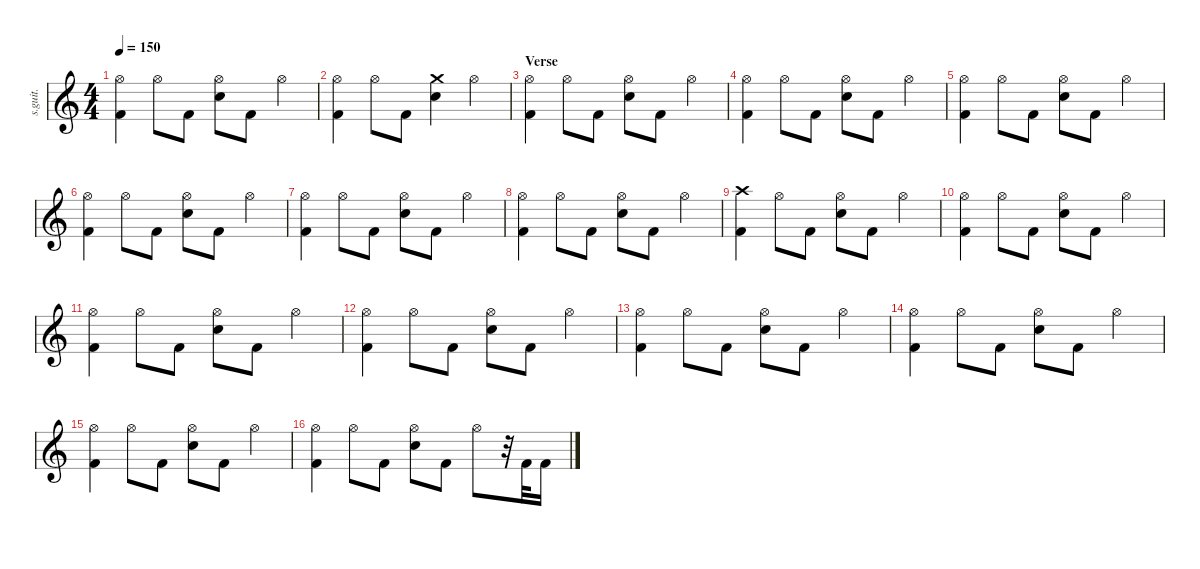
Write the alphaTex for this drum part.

\defaultSystemsLayout 4
\hideDynamics
\bracketExtendMode nobrackets
\track ("Christoph Schneider" "s.guit.") {instrument percussion}
\staff {score}
\articulation defaults
\ts (4 4)
\tempo 150
\clef g2
\ks c
("Kick (hit) 2" "Hi-Hat (open)").4{lyrics (0 "") lyrics (1 "") lyrics (2 "") lyrics (3 "") lyrics (4 "") dy ff} "Hi-Hat (open)".8{lyrics (0 "") lyrics (1 "") lyrics (2 "") lyrics (3 "") lyrics (4 "")} "Kick (hit) 2".8{lyrics (0 "") lyrics (1 "") lyrics (2 "") lyrics (3 "") lyrics (4 "")} ("Snare (hit) 2" "Hi-Hat (open)").8{lyrics (0 "") lyrics (1 "") lyrics (2 "") lyrics (3 "") lyrics (4 "")} "Kick (hit) 2".8{lyrics (0 "") lyrics (1 "") lyrics (2 "") lyrics (3 "") lyrics (4 "")} "Hi-Hat (open)".4{lyrics (0 "") lyrics (1 "") lyrics (2 "") lyrics (3 "") lyrics (4 "")} |
("Kick (hit) 2" "Hi-Hat (open)").4{lyrics (0 "") lyrics (1 "") lyrics (2 "") lyrics (3 "") lyrics (4 "")} "Hi-Hat (open)".8{lyrics (0 "") lyrics (1 "") lyrics (2 "") lyrics (3 "") lyrics (4 "")} "Kick (hit) 2".8{lyrics (0 "") lyrics (1 "") lyrics (2 "") lyrics (3 "") lyrics (4 "")} ("Crash medium (hit)" "Snare (hit) 2").4{lyrics (0 "") lyrics (1 "") lyrics (2 "") lyrics (3 "") lyrics (4 "")} "Hi-Hat (open)".4{lyrics (0 "") lyrics (1 "") lyrics (2 "") lyrics (3 "") lyrics (4 "")} |
\section ("" "Verse")
("Kick (hit) 2" "Hi-Hat (open)").4{lyrics (0 "") lyrics (1 "") lyrics (2 "") lyrics (3 "") lyrics (4 "")} "Hi-Hat (open)".8{lyrics (0 "") lyrics (1 "") lyrics (2 "") lyrics (3 "") lyrics (4 "")} "Kick (hit) 2".8{lyrics (0 "") lyrics (1 "") lyrics (2 "") lyrics (3 "") lyrics (4 "")} ("Snare (hit) 2" "Hi-Hat (open)").8{lyrics (0 "") lyrics (1 "") lyrics (2 "") lyrics (3 "") lyrics (4 "")} "Kick (hit) 2".8{lyrics (0 "") lyrics (1 "") lyrics (2 "") lyrics (3 "") lyrics (4 "")} "Hi-Hat (open)".4{lyrics (0 "") lyrics (1 "") lyrics (2 "") lyrics (3 "") lyrics (4 "")} |
("Kick (hit) 2" "Hi-Hat (open)").4{lyrics (0 "") lyrics (1 "") lyrics (2 "") lyrics (3 "") lyrics (4 "")} "Hi-Hat (open)".8{lyrics (0 "") lyrics (1 "") lyrics (2 "") lyrics (3 "") lyrics (4 "")} "Kick (hit) 2".8{lyrics (0 "") lyrics (1 "") lyrics (2 "") lyrics (3 "") lyrics (4 "")} ("Snare (hit) 2" "Hi-Hat (open)").8{lyrics (0 "") lyrics (1 "") lyrics (2 "") lyrics (3 "") lyrics (4 "")} "Kick (hit) 2".8{lyrics (0 "") lyrics (1 "") lyrics (2 "") lyrics (3 "") lyrics (4 "")} "Hi-Hat (open)".4{lyrics (0 "") lyrics (1 "") lyrics (2 "") lyrics (3 "") lyrics (4 "")} |
("Kick (hit) 2" "Hi-Hat (open)").4{lyrics (0 "") lyrics (1 "") lyrics (2 "") lyrics (3 "") lyrics (4 "")} "Hi-Hat (open)".8{lyrics (0 "") lyrics (1 "") lyrics (2 "") lyrics (3 "") lyrics (4 "")} "Kick (hit) 2".8{lyrics (0 "") lyrics (1 "") lyrics (2 "") lyrics (3 "") lyrics (4 "")} ("Snare (hit) 2" "Hi-Hat (open)").8{lyrics (0 "") lyrics (1 "") lyrics (2 "") lyrics (3 "") lyrics (4 "")} "Kick (hit) 2".8{lyrics (0 "") lyrics (1 "") lyrics (2 "") lyrics (3 "") lyrics (4 "")} "Hi-Hat (open)".4{lyrics (0 "") lyrics (1 "") lyrics (2 "") lyrics (3 "") lyrics (4 "")} |
("Kick (hit) 2" "Hi-Hat (open)").4{lyrics (0 "") lyrics (1 "") lyrics (2 "") lyrics (3 "") lyrics (4 "")} "Hi-Hat (open)".8{lyrics (0 "") lyrics (1 "") lyrics (2 "") lyrics (3 "") lyrics (4 "")} "Kick (hit) 2".8{lyrics (0 "") lyrics (1 "") lyrics (2 "") lyrics (3 "") lyrics (4 "")} ("Snare (hit) 2" "Hi-Hat (open)").8{lyrics (0 "") lyrics (1 "") lyrics (2 "") lyrics (3 "") lyrics (4 "")} "Kick (hit) 2".8{lyrics (0 "") lyrics (1 "") lyrics (2 "") lyrics (3 "") lyrics (4 "")} "Hi-Hat (open)".4{lyrics (0 "") lyrics (1 "") lyrics (2 "") lyrics (3 "") lyrics (4 "")} |
("Kick (hit) 2" "Hi-Hat (open)").4{lyrics (0 "") lyrics (1 "") lyrics (2 "") lyrics (3 "") lyrics (4 "")} "Hi-Hat (open)".8{lyrics (0 "") lyrics (1 "") lyrics (2 "") lyrics (3 "") lyrics (4 "")} "Kick (hit) 2".8{lyrics (0 "") lyrics (1 "") lyrics (2 "") lyrics (3 "") lyrics (4 "")} ("Snare (hit) 2" "Hi-Hat (open)").8{lyrics (0 "") lyrics (1 "") lyrics (2 "") lyrics (3 "") lyrics (4 "")} "Kick (hit) 2".8{lyrics (0 "") lyrics (1 "") lyrics (2 "") lyrics (3 "") lyrics (4 "")} "Hi-Hat (open)".4{lyrics (0 "") lyrics (1 "") lyrics (2 "") lyrics (3 "") lyrics (4 "")} |
("Kick (hit) 2" "Hi-Hat (open)").4{lyrics (0 "") lyrics (1 "") lyrics (2 "") lyrics (3 "") lyrics (4 "")} "Hi-Hat (open)".8{lyrics (0 "") lyrics (1 "") lyrics (2 "") lyrics (3 "") lyrics (4 "")} "Kick (hit) 2".8{lyrics (0 "") lyrics (1 "") lyrics (2 "") lyrics (3 "") lyrics (4 "")} ("Snare (hit) 2" "Hi-Hat (open)").8{lyrics (0 "") lyrics (1 "") lyrics (2 "") lyrics (3 "") lyrics (4 "")} "Kick (hit) 2".8{lyrics (0 "") lyrics (1 "") lyrics (2 "") lyrics (3 "") lyrics (4 "")} "Hi-Hat (open)".4{lyrics (0 "") lyrics (1 "") lyrics (2 "") lyrics (3 "") lyrics (4 "")} |
("Kick (hit) 2" "Crash high (hit)").4{lyrics (0 "") lyrics (1 "") lyrics (2 "") lyrics (3 "") lyrics (4 "")} "Hi-Hat (open)".8{lyrics (0 "") lyrics (1 "") lyrics (2 "") lyrics (3 "") lyrics (4 "")} "Kick (hit) 2".8{lyrics (0 "") lyrics (1 "") lyrics (2 "") lyrics (3 "") lyrics (4 "")} ("Snare (hit) 2" "Hi-Hat (open)").8{lyrics (0 "") lyrics (1 "") lyrics (2 "") lyrics (3 "") lyrics (4 "")} "Kick (hit) 2".8{lyrics (0 "") lyrics (1 "") lyrics (2 "") lyrics (3 "") lyrics (4 "")} "Hi-Hat (open)".4{lyrics (0 "") lyrics (1 "") lyrics (2 "") lyrics (3 "") lyrics (4 "")} |
("Kick (hit) 2" "Hi-Hat (open)").4{lyrics (0 "") lyrics (1 "") lyrics (2 "") lyrics (3 "") lyrics (4 "")} "Hi-Hat (open)".8{lyrics (0 "") lyrics (1 "") lyrics (2 "") lyrics (3 "") lyrics (4 "")} "Kick (hit) 2".8{lyrics (0 "") lyrics (1 "") lyrics (2 "") lyrics (3 "") lyrics (4 "")} ("Snare (hit) 2" "Hi-Hat (open)").8{lyrics (0 "") lyrics (1 "") lyrics (2 "") lyrics (3 "") lyrics (4 "")} "Kick (hit) 2".8{lyrics (0 "") lyrics (1 "") lyrics (2 "") lyrics (3 "") lyrics (4 "")} "Hi-Hat (open)".4{lyrics (0 "") lyrics (1 "") lyrics (2 "") lyrics (3 "") lyrics (4 "")} |
("Kick (hit) 2" "Hi-Hat (open)").4{lyrics (0 "") lyrics (1 "") lyrics (2 "") lyrics (3 "") lyrics (4 "")} "Hi-Hat (open)".8{lyrics (0 "") lyrics (1 "") lyrics (2 "") lyrics (3 "") lyrics (4 "")} "Kick (hit) 2".8{lyrics (0 "") lyrics (1 "") lyrics (2 "") lyrics (3 "") lyrics (4 "")} ("Snare (hit) 2" "Hi-Hat (open)").8{lyrics (0 "") lyrics (1 "") lyrics (2 "") lyrics (3 "") lyrics (4 "")} "Kick (hit) 2".8{lyrics (0 "") lyrics (1 "") lyrics (2 "") lyrics (3 "") lyrics (4 "")} "Hi-Hat (open)".4{lyrics (0 "") lyrics (1 "") lyrics (2 "") lyrics (3 "") lyrics (4 "")} |
("Kick (hit) 2" "Hi-Hat (open)").4{lyrics (0 "") lyrics (1 "") lyrics (2 "") lyrics (3 "") lyrics (4 "")} "Hi-Hat (open)".8{lyrics (0 "") lyrics (1 "") lyrics (2 "") lyrics (3 "") lyrics (4 "")} "Kick (hit) 2".8{lyrics (0 "") lyrics (1 "") lyrics (2 "") lyrics (3 "") lyrics (4 "")} ("Snare (hit) 2" "Hi-Hat (open)").8{lyrics (0 "") lyrics (1 "") lyrics (2 "") lyrics (3 "") lyrics (4 "")} "Kick (hit) 2".8{lyrics (0 "") lyrics (1 "") lyrics (2 "") lyrics (3 "") lyrics (4 "")} "Hi-Hat (open)".4{lyrics (0 "") lyrics (1 "") lyrics (2 "") lyrics (3 "") lyrics (4 "")} |
("Kick (hit) 2" "Hi-Hat (open)").4{lyrics (0 "") lyrics (1 "") lyrics (2 "") lyrics (3 "") lyrics (4 "")} "Hi-Hat (open)".8{lyrics (0 "") lyrics (1 "") lyrics (2 "") lyrics (3 "") lyrics (4 "")} "Kick (hit) 2".8{lyrics (0 "") lyrics (1 "") lyrics (2 "") lyrics (3 "") lyrics (4 "")} ("Snare (hit) 2" "Hi-Hat (open)").8{lyrics (0 "") lyrics (1 "") lyrics (2 "") lyrics (3 "") lyrics (4 "")} "Kick (hit) 2".8{lyrics (0 "") lyrics (1 "") lyrics (2 "") lyrics (3 "") lyrics (4 "")} "Hi-Hat (open)".4{lyrics (0 "") lyrics (1 "") lyrics (2 "") lyrics (3 "") lyrics (4 "")} |
("Kick (hit) 2" "Hi-Hat (open)").4{lyrics (0 "") lyrics (1 "") lyrics (2 "") lyrics (3 "") lyrics (4 "")} "Hi-Hat (open)".8{lyrics (0 "") lyrics (1 "") lyrics (2 "") lyrics (3 "") lyrics (4 "")} "Kick (hit) 2".8{lyrics (0 "") lyrics (1 "") lyrics (2 "") lyrics (3 "") lyrics (4 "")} ("Snare (hit) 2" "Hi-Hat (open)").8{lyrics (0 "") lyrics (1 "") lyrics (2 "") lyrics (3 "") lyrics (4 "")} "Kick (hit) 2".8{lyrics (0 "") lyrics (1 "") lyrics (2 "") lyrics (3 "") lyrics (4 "")} "Hi-Hat (open)".4{lyrics (0 "") lyrics (1 "") lyrics (2 "") lyrics (3 "") lyrics (4 "")} |
("Kick (hit) 2" "Hi-Hat (open)").4{lyrics (0 "") lyrics (1 "") lyrics (2 "") lyrics (3 "") lyrics (4 "")} "Hi-Hat (open)".8{lyrics (0 "") lyrics (1 "") lyrics (2 "") lyrics (3 "") lyrics (4 "")} "Kick (hit) 2".8{lyrics (0 "") lyrics (1 "") lyrics (2 "") lyrics (3 "") lyrics (4 "")} ("Snare (hit) 2" "Hi-Hat (open)").8{lyrics (0 "") lyrics (1 "") lyrics (2 "") lyrics (3 "") lyrics (4 "")} "Kick (hit) 2".8{lyrics (0 "") lyrics (1 "") lyrics (2 "") lyrics (3 "") lyrics (4 "")} "Hi-Hat (open)".4{lyrics (0 "") lyrics (1 "") lyrics (2 "") lyrics (3 "") lyrics (4 "")} |
("Kick (hit) 2" "Hi-Hat (open)").4{lyrics (0 "") lyrics (1 "") lyrics (2 "") lyrics (3 "") lyrics (4 "")} "Hi-Hat (open)".8{lyrics (0 "") lyrics (1 "") lyrics (2 "") lyrics (3 "") lyrics (4 "")} "Kick (hit) 2".8{lyrics (0 "") lyrics (1 "") lyrics (2 "") lyrics (3 "") lyrics (4 "")} ("Snare (hit) 2" "Hi-Hat (open)").8{lyrics (0 "") lyrics (1 "") lyrics (2 "") lyrics (3 "") lyrics (4 "")} "Kick (hit) 2".8{lyrics (0 "") lyrics (1 "") lyrics (2 "") lyrics (3 "") lyrics (4 "")} "Hi-Hat (open)".8{lyrics (0 "") lyrics (1 "") lyrics (2 "") lyrics (3 "") lyrics (4 "")} r.32 "Kick (hit) 2".32{lyrics (0 "") lyrics (1 "") lyrics (2 "") lyrics (3 "") lyrics (4 "")} "Kick (hit) 2".16{lyrics (0 "") lyrics (1 "") lyrics (2 "") lyrics (3 "") lyrics (4 "")}
